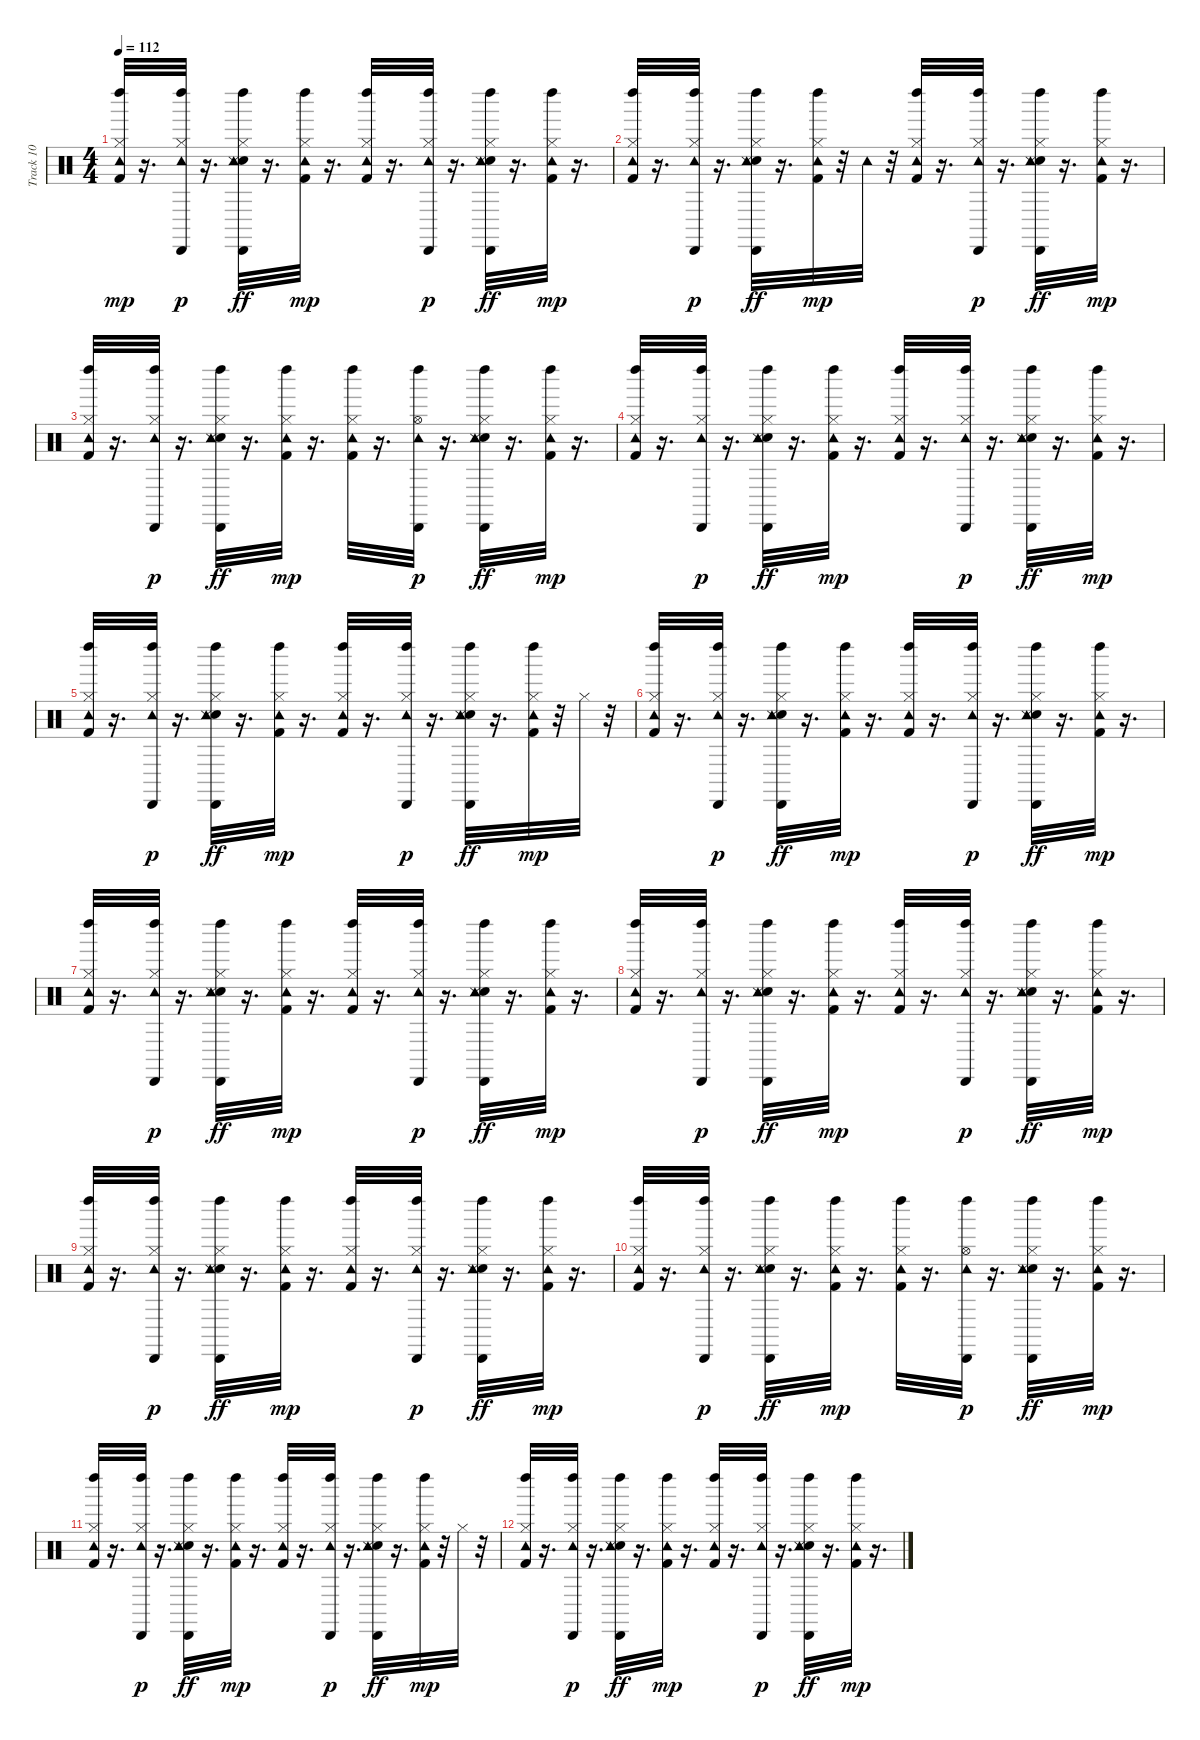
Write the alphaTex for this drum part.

\track ("Track 10" "Track 10") {instrument percussion}
\staff {score}
\articulation defaults
\ts (4 4)
\tempo 112
\clef neutral
\ks c
("Left Maraca (hit)" "Tambourine (hit)" "Hi-Hat (closed)" "Kick (hit) 2").32{dy mp} r.16{d} ("Cabasa (hit)" "Left Maraca (hit)" "Tambourine (hit)" "Hi-Hat (closed)").32{dy p} r.16{d} ("Cabasa (hit)" "Left Maraca (hit)" "Hand Clap (hit)" "Tambourine (hit)" "Snare (side stick) 3" "Hi-Hat (closed)").32{dy ff} r.16{d} ("Left Maraca (hit)" "Tambourine (hit)" "Hi-Hat (closed)" "Kick (hit) 2").32{dy mp} r.16{d} ("Left Maraca (hit)" "Tambourine (hit)" "Hi-Hat (closed)" "Kick (hit) 2").32 r.16{d} ("Cabasa (hit)" "Left Maraca (hit)" "Tambourine (hit)" "Hi-Hat (closed)").32{dy p} r.16{d} ("Cabasa (hit)" "Left Maraca (hit)" "Hand Clap (hit)" "Tambourine (hit)" "Snare (side stick) 3" "Hi-Hat (closed)").32{dy ff} r.16{d} ("Left Maraca (hit)" "Tambourine (hit)" "Hi-Hat (closed)" "Kick (hit) 2").32{dy mp} r.16{d} |
("Left Maraca (hit)" "Tambourine (hit)" "Hi-Hat (closed)" "Kick (hit) 2").32 r.16{d} ("Cabasa (hit)" "Left Maraca (hit)" "Tambourine (hit)" "Hi-Hat (closed)").32{dy p} r.16{d} ("Cabasa (hit)" "Left Maraca (hit)" "Hand Clap (hit)" "Tambourine (hit)" "Snare (side stick) 3" "Hi-Hat (closed)").32{dy ff} r.16{d} ("Left Maraca (hit)" "Tambourine (hit)" "Hi-Hat (closed)" "Kick (hit) 2").32{dy mp} r.32 "Tambourine (hit)".32 r.32 ("Left Maraca (hit)" "Tambourine (hit)" "Hi-Hat (closed)" "Kick (hit) 2").32 r.16{d} ("Cabasa (hit)" "Left Maraca (hit)" "Tambourine (hit)" "Hi-Hat (closed)").32{dy p} r.16{d} ("Cabasa (hit)" "Left Maraca (hit)" "Hand Clap (hit)" "Tambourine (hit)" "Snare (side stick) 3" "Hi-Hat (closed)").32{dy ff} r.16{d} ("Left Maraca (hit)" "Tambourine (hit)" "Hi-Hat (closed)" "Kick (hit) 2").32{dy mp} r.16{d} |
("Left Maraca (hit)" "Tambourine (hit)" "Hi-Hat (closed)" "Kick (hit) 2").32 r.16{d} ("Cabasa (hit)" "Left Maraca (hit)" "Tambourine (hit)" "Hi-Hat (closed)").32{dy p} r.16{d} ("Cabasa (hit)" "Left Maraca (hit)" "Hand Clap (hit)" "Tambourine (hit)" "Snare (side stick) 3" "Hi-Hat (closed)").32{dy ff} r.16{d} ("Left Maraca (hit)" "Tambourine (hit)" "Hi-Hat (closed)" "Kick (hit) 2").32{dy mp} r.16{d} ("Left Maraca (hit)" "Tambourine (hit)" "Hi-Hat (closed)" "Kick (hit) 2").32 r.16{d} ("Cabasa (hit)" "Left Maraca (hit)" "Tambourine (hit)" "Hi-Hat (open)").32{dy p} r.16{d} ("Cabasa (hit)" "Left Maraca (hit)" "Hand Clap (hit)" "Tambourine (hit)" "Snare (side stick) 3" "Hi-Hat (closed)").32{dy ff} r.16{d} ("Left Maraca (hit)" "Tambourine (hit)" "Hi-Hat (closed)" "Kick (hit) 2").32{dy mp} r.16{d} |
("Left Maraca (hit)" "Tambourine (hit)" "Hi-Hat (closed)" "Kick (hit) 2").32 r.16{d} ("Cabasa (hit)" "Left Maraca (hit)" "Tambourine (hit)" "Hi-Hat (closed)").32{dy p} r.16{d} ("Cabasa (hit)" "Left Maraca (hit)" "Hand Clap (hit)" "Tambourine (hit)" "Snare (side stick) 3" "Hi-Hat (closed)").32{dy ff} r.16{d} ("Left Maraca (hit)" "Tambourine (hit)" "Hi-Hat (closed)" "Kick (hit) 2").32{dy mp} r.16{d} ("Left Maraca (hit)" "Tambourine (hit)" "Hi-Hat (closed)" "Kick (hit) 2").32 r.16{d} ("Cabasa (hit)" "Left Maraca (hit)" "Tambourine (hit)" "Hi-Hat (closed)").32{dy p} r.16{d} ("Cabasa (hit)" "Left Maraca (hit)" "Hand Clap (hit)" "Tambourine (hit)" "Snare (side stick) 3" "Hi-Hat (closed)").32{dy ff} r.16{d} ("Left Maraca (hit)" "Tambourine (hit)" "Hi-Hat (closed)" "Kick (hit) 2").32{dy mp} r.16{d} |
("Left Maraca (hit)" "Tambourine (hit)" "Hi-Hat (closed)" "Kick (hit) 2").32 r.16{d} ("Cabasa (hit)" "Left Maraca (hit)" "Tambourine (hit)" "Hi-Hat (closed)").32{dy p} r.16{d} ("Cabasa (hit)" "Left Maraca (hit)" "Hand Clap (hit)" "Tambourine (hit)" "Snare (side stick) 3" "Hi-Hat (closed)").32{dy ff} r.16{d} ("Left Maraca (hit)" "Tambourine (hit)" "Hi-Hat (closed)" "Kick (hit) 2").32{dy mp} r.16{d} ("Left Maraca (hit)" "Tambourine (hit)" "Hi-Hat (closed)" "Kick (hit) 2").32 r.16{d} ("Cabasa (hit)" "Left Maraca (hit)" "Tambourine (hit)" "Hi-Hat (closed)").32{dy p} r.16{d} ("Cabasa (hit)" "Left Maraca (hit)" "Hand Clap (hit)" "Tambourine (hit)" "Snare (side stick) 3" "Hi-Hat (closed)").32{dy ff} r.16{d} ("Left Maraca (hit)" "Tambourine (hit)" "Hi-Hat (closed)" "Kick (hit) 2").32{dy mp} r.32 "Hi-Hat (closed)".32 r.32 |
("Left Maraca (hit)" "Tambourine (hit)" "Hi-Hat (closed)" "Kick (hit) 2").32 r.16{d} ("Cabasa (hit)" "Left Maraca (hit)" "Tambourine (hit)" "Hi-Hat (closed)").32{dy p} r.16{d} ("Cabasa (hit)" "Left Maraca (hit)" "Hand Clap (hit)" "Tambourine (hit)" "Snare (side stick) 3" "Hi-Hat (closed)").32{dy ff} r.16{d} ("Left Maraca (hit)" "Tambourine (hit)" "Hi-Hat (closed)" "Kick (hit) 2").32{dy mp} r.16{d} ("Left Maraca (hit)" "Tambourine (hit)" "Hi-Hat (closed)" "Kick (hit) 2").32 r.16{d} ("Cabasa (hit)" "Left Maraca (hit)" "Tambourine (hit)" "Hi-Hat (closed)").32{dy p} r.16{d} ("Cabasa (hit)" "Left Maraca (hit)" "Hand Clap (hit)" "Tambourine (hit)" "Snare (side stick) 3" "Hi-Hat (closed)").32{dy ff} r.16{d} ("Left Maraca (hit)" "Tambourine (hit)" "Hi-Hat (closed)" "Kick (hit) 2").32{dy mp} r.16{d} |
("Left Maraca (hit)" "Tambourine (hit)" "Hi-Hat (closed)" "Kick (hit) 2").32 r.16{d} ("Cabasa (hit)" "Left Maraca (hit)" "Tambourine (hit)" "Hi-Hat (closed)").32{dy p} r.16{d} ("Cabasa (hit)" "Left Maraca (hit)" "Hand Clap (hit)" "Tambourine (hit)" "Snare (side stick) 3" "Hi-Hat (closed)").32{dy ff} r.16{d} ("Left Maraca (hit)" "Tambourine (hit)" "Hi-Hat (closed)" "Kick (hit) 2").32{dy mp} r.16{d} ("Left Maraca (hit)" "Tambourine (hit)" "Hi-Hat (closed)" "Kick (hit) 2").32 r.16{d} ("Cabasa (hit)" "Left Maraca (hit)" "Tambourine (hit)" "Hi-Hat (closed)").32{dy p} r.16{d} ("Cabasa (hit)" "Left Maraca (hit)" "Hand Clap (hit)" "Tambourine (hit)" "Snare (side stick) 3" "Hi-Hat (closed)").32{dy ff} r.16{d} ("Left Maraca (hit)" "Tambourine (hit)" "Hi-Hat (closed)" "Kick (hit) 2").32{dy mp} r.16{d} |
("Left Maraca (hit)" "Tambourine (hit)" "Hi-Hat (closed)" "Kick (hit) 2").32 r.16{d} ("Cabasa (hit)" "Left Maraca (hit)" "Tambourine (hit)" "Hi-Hat (closed)").32{dy p} r.16{d} ("Cabasa (hit)" "Left Maraca (hit)" "Hand Clap (hit)" "Tambourine (hit)" "Snare (side stick) 3" "Hi-Hat (closed)").32{dy ff} r.16{d} ("Left Maraca (hit)" "Tambourine (hit)" "Hi-Hat (closed)" "Kick (hit) 2").32{dy mp} r.16{d} ("Left Maraca (hit)" "Tambourine (hit)" "Hi-Hat (closed)" "Kick (hit) 2").32 r.16{d} ("Cabasa (hit)" "Left Maraca (hit)" "Tambourine (hit)" "Hi-Hat (closed)").32{dy p} r.16{d} ("Cabasa (hit)" "Left Maraca (hit)" "Hand Clap (hit)" "Tambourine (hit)" "Snare (side stick) 3" "Hi-Hat (closed)").32{dy ff} r.16{d} ("Left Maraca (hit)" "Tambourine (hit)" "Hi-Hat (closed)" "Kick (hit) 2").32{dy mp} r.16{d} |
("Left Maraca (hit)" "Tambourine (hit)" "Hi-Hat (closed)" "Kick (hit) 2").32 r.16{d} ("Cabasa (hit)" "Left Maraca (hit)" "Tambourine (hit)" "Hi-Hat (closed)").32{dy p} r.16{d} ("Cabasa (hit)" "Left Maraca (hit)" "Hand Clap (hit)" "Tambourine (hit)" "Snare (side stick) 3" "Hi-Hat (closed)").32{dy ff} r.16{d} ("Left Maraca (hit)" "Tambourine (hit)" "Hi-Hat (closed)" "Kick (hit) 2").32{dy mp} r.16{d} ("Left Maraca (hit)" "Tambourine (hit)" "Hi-Hat (closed)" "Kick (hit) 2").32 r.16{d} ("Cabasa (hit)" "Left Maraca (hit)" "Tambourine (hit)" "Hi-Hat (closed)").32{dy p} r.16{d} ("Cabasa (hit)" "Left Maraca (hit)" "Hand Clap (hit)" "Tambourine (hit)" "Snare (side stick) 3" "Hi-Hat (closed)").32{dy ff} r.16{d} ("Left Maraca (hit)" "Tambourine (hit)" "Hi-Hat (closed)" "Kick (hit) 2").32{dy mp} r.16{d} |
("Left Maraca (hit)" "Tambourine (hit)" "Hi-Hat (closed)" "Kick (hit) 2").32 r.16{d} ("Cabasa (hit)" "Left Maraca (hit)" "Tambourine (hit)" "Hi-Hat (closed)").32{dy p} r.16{d} ("Cabasa (hit)" "Left Maraca (hit)" "Hand Clap (hit)" "Tambourine (hit)" "Snare (side stick) 3" "Hi-Hat (closed)").32{dy ff} r.16{d} ("Left Maraca (hit)" "Tambourine (hit)" "Hi-Hat (closed)" "Kick (hit) 2").32{dy mp} r.16{d} ("Left Maraca (hit)" "Tambourine (hit)" "Hi-Hat (closed)" "Kick (hit) 2").32 r.16{d} ("Cabasa (hit)" "Left Maraca (hit)" "Tambourine (hit)" "Hi-Hat (open)").32{dy p} r.16{d} ("Cabasa (hit)" "Left Maraca (hit)" "Hand Clap (hit)" "Tambourine (hit)" "Snare (side stick) 3" "Hi-Hat (closed)").32{dy ff} r.16{d} ("Left Maraca (hit)" "Tambourine (hit)" "Hi-Hat (closed)" "Kick (hit) 2").32{dy mp} r.16{d} |
("Left Maraca (hit)" "Tambourine (hit)" "Hi-Hat (closed)" "Kick (hit) 2").32 r.16{d} ("Cabasa (hit)" "Left Maraca (hit)" "Tambourine (hit)" "Hi-Hat (closed)").32{dy p} r.16{d} ("Cabasa (hit)" "Left Maraca (hit)" "Hand Clap (hit)" "Tambourine (hit)" "Snare (side stick) 3" "Hi-Hat (closed)").32{dy ff} r.16{d} ("Left Maraca (hit)" "Tambourine (hit)" "Hi-Hat (closed)" "Kick (hit) 2").32{dy mp} r.16{d} ("Left Maraca (hit)" "Tambourine (hit)" "Hi-Hat (closed)" "Kick (hit) 2").32 r.16{d} ("Cabasa (hit)" "Left Maraca (hit)" "Tambourine (hit)" "Hi-Hat (closed)").32{dy p} r.16{d} ("Cabasa (hit)" "Left Maraca (hit)" "Hand Clap (hit)" "Tambourine (hit)" "Snare (side stick) 3" "Hi-Hat (closed)").32{dy ff} r.16{d} ("Left Maraca (hit)" "Tambourine (hit)" "Hi-Hat (closed)" "Kick (hit) 2").32{dy mp} r.32 "Hi-Hat (closed)".32 r.32 |
("Left Maraca (hit)" "Tambourine (hit)" "Hi-Hat (closed)" "Kick (hit) 2").32 r.16{d} ("Cabasa (hit)" "Left Maraca (hit)" "Tambourine (hit)" "Hi-Hat (closed)").32{dy p} r.16{d} ("Cabasa (hit)" "Left Maraca (hit)" "Hand Clap (hit)" "Tambourine (hit)" "Snare (side stick) 3" "Hi-Hat (closed)").32{dy ff} r.16{d} ("Left Maraca (hit)" "Tambourine (hit)" "Hi-Hat (closed)" "Kick (hit) 2").32{dy mp} r.16{d} ("Left Maraca (hit)" "Tambourine (hit)" "Hi-Hat (closed)" "Kick (hit) 2").32 r.16{d} ("Cabasa (hit)" "Left Maraca (hit)" "Tambourine (hit)" "Hi-Hat (closed)").32{dy p} r.16{d} ("Cabasa (hit)" "Left Maraca (hit)" "Hand Clap (hit)" "Tambourine (hit)" "Snare (side stick) 3" "Hi-Hat (closed)").32{dy ff} r.16{d} ("Left Maraca (hit)" "Tambourine (hit)" "Hi-Hat (closed)" "Kick (hit) 2").32{dy mp} r.16{d}
